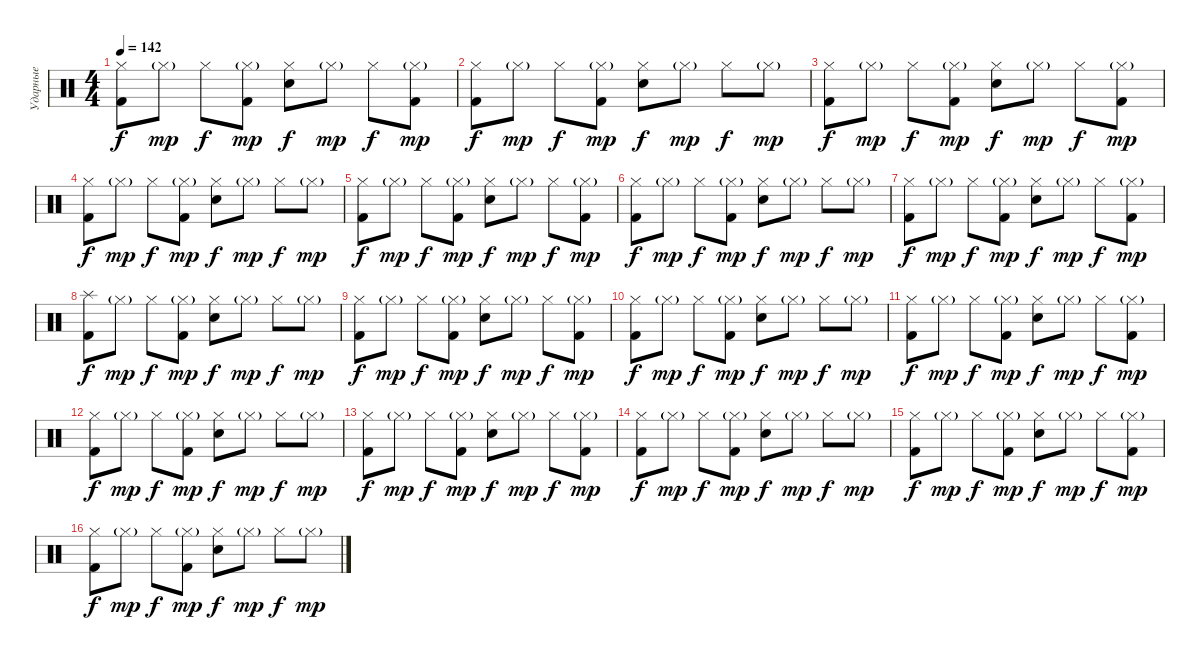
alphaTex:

\track ("Ударные" "Ударные") {instrument percussion}
\staff {score}
\articulation defaults
\ts (4 4)
\tempo 142
\clef neutral
\ks c
("Hi-Hat (closed)" "Kick (hit) 2").8{dy f} "Hi-Hat (closed)"{g}.8{dy mp} "Hi-Hat (closed)".8{dy f} ("Hi-Hat (closed)"{g} "Kick (hit) 2").8{dy mp} ("Hi-Hat (closed)" "Snare (hit) 2").8{dy f} "Hi-Hat (closed)"{g}.8{dy mp} "Hi-Hat (closed)".8{dy f} ("Hi-Hat (closed)"{g} "Kick (hit) 2").8{dy mp} |
("Hi-Hat (closed)" "Kick (hit) 2").8{dy f} "Hi-Hat (closed)"{g}.8{dy mp} "Hi-Hat (closed)".8{dy f} ("Hi-Hat (closed)"{g} "Kick (hit) 2").8{dy mp} ("Hi-Hat (closed)" "Snare (hit) 2").8{dy f} "Hi-Hat (closed)"{g}.8{dy mp} "Hi-Hat (closed)".8{dy f} "Hi-Hat (closed)"{g}.8{dy mp} |
("Hi-Hat (closed)" "Kick (hit) 2").8{dy f} "Hi-Hat (closed)"{g}.8{dy mp} "Hi-Hat (closed)".8{dy f} ("Hi-Hat (closed)"{g} "Kick (hit) 2").8{dy mp} ("Hi-Hat (closed)" "Snare (hit) 2").8{dy f} "Hi-Hat (closed)"{g}.8{dy mp} "Hi-Hat (closed)".8{dy f} ("Hi-Hat (closed)"{g} "Kick (hit) 2").8{dy mp} |
("Hi-Hat (closed)" "Kick (hit) 2").8{dy f} "Hi-Hat (closed)"{g}.8{dy mp} "Hi-Hat (closed)".8{dy f} ("Hi-Hat (closed)"{g} "Kick (hit) 2").8{dy mp} ("Hi-Hat (closed)" "Snare (hit) 2").8{dy f} "Hi-Hat (closed)"{g}.8{dy mp} "Hi-Hat (closed)".8{dy f} "Hi-Hat (closed)"{g}.8{dy mp} |
("Hi-Hat (closed)" "Kick (hit) 2").8{dy f} "Hi-Hat (closed)"{g}.8{dy mp} "Hi-Hat (closed)".8{dy f} ("Hi-Hat (closed)"{g} "Kick (hit) 2").8{dy mp} ("Hi-Hat (closed)" "Snare (hit) 2").8{dy f} "Hi-Hat (closed)"{g}.8{dy mp} "Hi-Hat (closed)".8{dy f} ("Hi-Hat (closed)"{g} "Kick (hit) 2").8{dy mp} |
("Hi-Hat (closed)" "Kick (hit) 2").8{dy f} "Hi-Hat (closed)"{g}.8{dy mp} "Hi-Hat (closed)".8{dy f} ("Hi-Hat (closed)"{g} "Kick (hit) 2").8{dy mp} ("Hi-Hat (closed)" "Snare (hit) 2").8{dy f} "Hi-Hat (closed)"{g}.8{dy mp} "Hi-Hat (closed)".8{dy f} "Hi-Hat (closed)"{g}.8{dy mp} |
("Hi-Hat (closed)" "Kick (hit) 2").8{dy f} "Hi-Hat (closed)"{g}.8{dy mp} "Hi-Hat (closed)".8{dy f} ("Hi-Hat (closed)"{g} "Kick (hit) 2").8{dy mp} ("Hi-Hat (closed)" "Snare (hit) 2").8{dy f} "Hi-Hat (closed)"{g}.8{dy mp} "Hi-Hat (closed)".8{dy f} ("Hi-Hat (closed)"{g} "Kick (hit) 2").8{dy mp} |
("Splash (hit)" "Kick (hit) 2").8{dy f} "Hi-Hat (closed)"{g}.8{dy mp} "Hi-Hat (closed)".8{dy f} ("Hi-Hat (closed)"{g} "Kick (hit) 2").8{dy mp} ("Hi-Hat (closed)" "Snare (hit) 2").8{dy f} "Hi-Hat (closed)"{g}.8{dy mp} "Hi-Hat (closed)".8{dy f} "Hi-Hat (closed)"{g}.8{dy mp} |
("Hi-Hat (closed)" "Kick (hit) 2").8{dy f} "Hi-Hat (closed)"{g}.8{dy mp} "Hi-Hat (closed)".8{dy f} ("Hi-Hat (closed)"{g} "Kick (hit) 2").8{dy mp} ("Hi-Hat (closed)" "Snare (hit) 2").8{dy f} "Hi-Hat (closed)"{g}.8{dy mp} "Hi-Hat (closed)".8{dy f} ("Hi-Hat (closed)"{g} "Kick (hit) 2").8{dy mp} |
("Hi-Hat (closed)" "Kick (hit) 2").8{dy f} "Hi-Hat (closed)"{g}.8{dy mp} "Hi-Hat (closed)".8{dy f} ("Hi-Hat (closed)"{g} "Kick (hit) 2").8{dy mp} ("Hi-Hat (closed)" "Snare (hit) 2").8{dy f} "Hi-Hat (closed)"{g}.8{dy mp} "Hi-Hat (closed)".8{dy f} "Hi-Hat (closed)"{g}.8{dy mp} |
("Hi-Hat (closed)" "Kick (hit) 2").8{dy f} "Hi-Hat (closed)"{g}.8{dy mp} "Hi-Hat (closed)".8{dy f} ("Hi-Hat (closed)"{g} "Kick (hit) 2").8{dy mp} ("Hi-Hat (closed)" "Snare (hit) 2").8{dy f} "Hi-Hat (closed)"{g}.8{dy mp} "Hi-Hat (closed)".8{dy f} ("Hi-Hat (closed)"{g} "Kick (hit) 2").8{dy mp} |
("Hi-Hat (closed)" "Kick (hit) 2").8{dy f} "Hi-Hat (closed)"{g}.8{dy mp} "Hi-Hat (closed)".8{dy f} ("Hi-Hat (closed)"{g} "Kick (hit) 2").8{dy mp} ("Hi-Hat (closed)" "Snare (hit) 2").8{dy f} "Hi-Hat (closed)"{g}.8{dy mp} "Hi-Hat (closed)".8{dy f} "Hi-Hat (closed)"{g}.8{dy mp} |
("Hi-Hat (closed)" "Kick (hit) 2").8{dy f} "Hi-Hat (closed)"{g}.8{dy mp} "Hi-Hat (closed)".8{dy f} ("Hi-Hat (closed)"{g} "Kick (hit) 2").8{dy mp} ("Hi-Hat (closed)" "Snare (hit) 2").8{dy f} "Hi-Hat (closed)"{g}.8{dy mp} "Hi-Hat (closed)".8{dy f} ("Hi-Hat (closed)"{g} "Kick (hit) 2").8{dy mp} |
("Hi-Hat (closed)" "Kick (hit) 2").8{dy f} "Hi-Hat (closed)"{g}.8{dy mp} "Hi-Hat (closed)".8{dy f} ("Hi-Hat (closed)"{g} "Kick (hit) 2").8{dy mp} ("Hi-Hat (closed)" "Snare (hit) 2").8{dy f} "Hi-Hat (closed)"{g}.8{dy mp} "Hi-Hat (closed)".8{dy f} "Hi-Hat (closed)"{g}.8{dy mp} |
("Hi-Hat (closed)" "Kick (hit) 2").8{dy f} "Hi-Hat (closed)"{g}.8{dy mp} "Hi-Hat (closed)".8{dy f} ("Hi-Hat (closed)"{g} "Kick (hit) 2").8{dy mp} ("Hi-Hat (closed)" "Snare (hit) 2").8{dy f} "Hi-Hat (closed)"{g}.8{dy mp} "Hi-Hat (closed)".8{dy f} ("Hi-Hat (closed)"{g} "Kick (hit) 2").8{dy mp} |
("Hi-Hat (closed)" "Kick (hit) 2").8{dy f} "Hi-Hat (closed)"{g}.8{dy mp} "Hi-Hat (closed)".8{dy f} ("Hi-Hat (closed)"{g} "Kick (hit) 2").8{dy mp} ("Hi-Hat (closed)" "Snare (hit) 2").8{dy f} "Hi-Hat (closed)"{g}.8{dy mp} "Hi-Hat (closed)".8{dy f} "Hi-Hat (closed)"{g}.8{dy mp}
